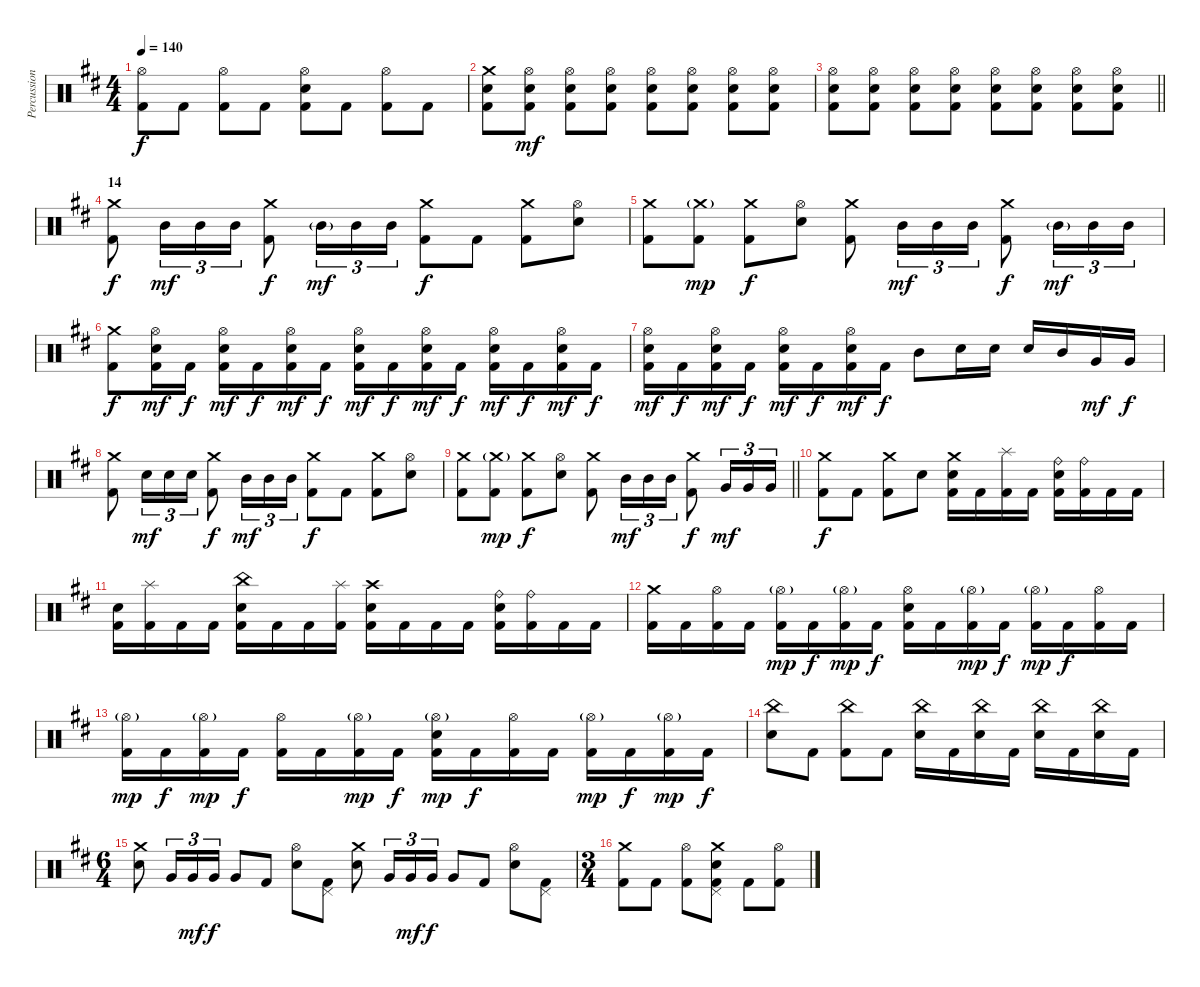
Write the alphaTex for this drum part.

\track ("Percussion" "Percussion") {instrument percussion}
\staff {score}
\articulation defaults
\ts (4 4)
\tempo 140
\clef neutral
\ks bminor
("Hi-Hat (open)" "Kick (hit) 2").8{dy f} "Kick (hit) 2".8 ("Hi-Hat (open)" "Kick (hit) 2").8 "Kick (hit) 2".8 ("Hi-Hat (open)" "Snare (hit) 2" "Kick (hit) 2").8 "Kick (hit) 2".8 ("Hi-Hat (open)" "Kick (hit) 2").8 "Kick (hit) 2".8 |
("Crash medium (hit)" "Snare (hit) 2" "Kick (hit) 2").8 ("Hi-Hat (open)" "Snare (hit) 2" "Kick (hit) 2").8{dy mf} ("Hi-Hat (open)" "Snare (hit) 2" "Kick (hit) 2").8 ("Hi-Hat (open)" "Snare (hit) 2" "Kick (hit) 2").8 ("Hi-Hat (open)" "Snare (hit) 2" "Kick (hit) 2").8 ("Hi-Hat (open)" "Snare (hit) 2" "Kick (hit) 2").8 ("Hi-Hat (open)" "Snare (hit) 2" "Kick (hit) 2").8 ("Hi-Hat (open)" "Snare (hit) 2" "Kick (hit) 2").8 |
\barLineRight lightlight
("Hi-Hat (open)" "Snare (hit) 2" "Kick (hit) 2").8 ("Hi-Hat (open)" "Snare (hit) 2" "Kick (hit) 2").8 ("Hi-Hat (open)" "Snare (hit) 2" "Kick (hit) 2").8 ("Hi-Hat (open)" "Snare (hit) 2" "Kick (hit) 2").8 ("Hi-Hat (open)" "Snare (hit) 2" "Kick (hit) 2").8 ("Hi-Hat (open)" "Snare (hit) 2" "Kick (hit) 2").8 ("Hi-Hat (open)" "Snare (hit) 2" "Kick (hit) 2").8 ("Hi-Hat (open)" "Snare (hit) 2" "Kick (hit) 2").8 |
\section ("" "14")
("Crash medium (hit)" "Kick (hit) 2").8{dy f} "Mid Tom (hit)".16{tu (3 2) dy mf} "Mid Tom (hit)".16{tu (3 2)} "Mid Tom (hit)".16{tu (3 2)} ("Crash medium (hit)" "Kick (hit) 2").8{dy f} "Mid Tom (hit)"{g}.16{tu (3 2) dy mf} "Mid Tom (hit)".16{tu (3 2)} "Mid Tom (hit)".16{tu (3 2)} ("Crash medium (hit)" "Kick (hit) 2").8{dy f} "Kick (hit) 2".8 ("Crash medium (hit)" "Kick (hit) 2").8 ("Hi-Hat (open)" "Snare (hit) 2").8 |
("Crash medium (hit)" "Kick (hit) 2").8 ("Crash medium (hit)"{g} "Kick (hit) 2").8{dy mp} ("Crash medium (hit)" "Kick (hit) 2").8{dy f} ("Hi-Hat (open)" "Snare (hit) 2").8 ("Crash medium (hit)" "Kick (hit) 2").8 "Mid Tom (hit)".16{tu (3 2) dy mf} "Mid Tom (hit)".16{tu (3 2)} "Mid Tom (hit)".16{tu (3 2)} ("Crash medium (hit)" "Kick (hit) 2").8{dy f} "Mid Tom (hit)"{g}.16{tu (3 2) dy mf} "Mid Tom (hit)".16{tu (3 2)} "Mid Tom (hit)".16{tu (3 2)} |
("Crash medium (hit)" "Kick (hit) 2").8{dy f} ("Hi-Hat (open)" "Snare (hit) 2" "Kick (hit) 2").16{dy mf} "Kick (hit) 2".16{dy f} ("Hi-Hat (open)" "Snare (hit) 2" "Kick (hit) 2").16{dy mf} "Kick (hit) 2".16{dy f} ("Hi-Hat (open)" "Snare (hit) 2" "Kick (hit) 2").16{dy mf} "Kick (hit) 2".16{dy f} ("Hi-Hat (open)" "Snare (hit) 2" "Kick (hit) 2").16{dy mf} "Kick (hit) 2".16{dy f} ("Hi-Hat (open)" "Snare (hit) 2" "Kick (hit) 2").16{dy mf} "Kick (hit) 2".16{dy f} ("Hi-Hat (open)" "Snare (hit) 2" "Kick (hit) 2").16{dy mf} "Kick (hit) 2".16{dy f} ("Hi-Hat (open)" "Snare (hit) 2" "Kick (hit) 2").16{dy mf} "Kick (hit) 2".16{dy f} |
("Hi-Hat (open)" "Snare (hit) 2" "Kick (hit) 2").16{dy mf} "Kick (hit) 2".16{dy f} ("Hi-Hat (open)" "Snare (hit) 2" "Kick (hit) 2").16{dy mf} "Kick (hit) 2".16{dy f} ("Hi-Hat (open)" "Snare (hit) 2" "Kick (hit) 2").16{dy mf} "Kick (hit) 2".16{dy f} ("Hi-Hat (open)" "Snare (hit) 2" "Kick (hit) 2").16{dy mf} "Kick (hit) 2".16{dy f} "Mid Tom (hit)".8 "Snare (hit) 2".16 "Snare (hit) 2".16 "Snare (hit) 2".16 "Mid Tom (hit)".16 "Very Low Tom (hit)".16{dy mf} "Very Low Tom (hit)".16{dy f} |
("Crash medium (hit)" "Kick (hit) 2").8 "Snare (hit) 2".16{tu (3 2) dy mf} "Snare (hit) 2".16{tu (3 2)} "Snare (hit) 2".16{tu (3 2)} ("Crash medium (hit)" "Kick (hit) 2").8{dy f} "Mid Tom (hit)".16{tu (3 2) dy mf} "Mid Tom (hit)".16{tu (3 2)} "Mid Tom (hit)".16{tu (3 2)} ("Crash medium (hit)" "Kick (hit) 2").8{dy f} "Kick (hit) 2".8 ("Crash medium (hit)" "Kick (hit) 2").8 ("Hi-Hat (open)" "Snare (hit) 2").8 |
\barLineRight lightlight
("Crash medium (hit)" "Kick (hit) 2").8 ("Crash medium (hit)"{g} "Kick (hit) 2").8{dy mp} ("Crash medium (hit)" "Kick (hit) 2").8{dy f} ("Hi-Hat (open)" "Snare (hit) 2").8 ("Crash medium (hit)" "Kick (hit) 2").8 "Mid Tom (hit)".16{tu (3 2) dy mf} "Mid Tom (hit)".16{tu (3 2)} "Mid Tom (hit)".16{tu (3 2)} ("Crash medium (hit)" "Kick (hit) 2").8{dy f} "Very Low Tom (hit)".16{tu (3 2) dy mf} "Very Low Tom (hit)".16{tu (3 2)} "Very Low Tom (hit)".16{tu (3 2)} |
\section ("" "")
("Crash medium (hit)" "Kick (hit) 2").8{dy f} "Kick (hit) 2".8 ("Crash medium (hit)" "Kick (hit) 2").8 "Snare (hit) 2".8 ("Crash medium (hit)" "Snare (hit) 2" "Kick (hit) 2").16 "Kick (hit) 2".16 ("Splash (hit)" "Kick (hit) 2").16 "Kick (hit) 2".16 ("Ride (bell)" "Snare (hit) 2" "Kick (hit) 2").16 ("Ride (bell)" "Kick (hit) 2").16 "Kick (hit) 2".16 "Kick (hit) 2".16 |
("Snare (hit) 2" "Kick (hit) 2").16 ("Splash (hit)" "Kick (hit) 2").16 "Kick (hit) 2".16 "Kick (hit) 2".16 ("China (hit)" "Snare (hit) 2" "Kick (hit) 2").16 "Kick (hit) 2".16 "Kick (hit) 2".16 ("Splash (hit)" "Kick (hit) 2").16 ("Crash high (hit)" "Snare (hit) 2" "Kick (hit) 2").16 "Kick (hit) 2".16 "Kick (hit) 2".16 "Kick (hit) 2".16 ("Ride (bell)" "Snare (hit) 2" "Kick (hit) 2").16 ("Ride (bell)" "Kick (hit) 2").16 "Kick (hit) 2".16 "Kick (hit) 2".16 |
("Crash medium (hit)" "Kick (hit) 2").16 "Kick (hit) 2".16 ("Hi-Hat (open)" "Kick (hit) 2").16 "Kick (hit) 2".16 ("Hi-Hat (open)"{g} "Kick (hit) 2").16{dy mp} "Kick (hit) 2".16{dy f} ("Hi-Hat (open)"{g} "Kick (hit) 2").16{dy mp} "Kick (hit) 2".16{dy f} ("Hi-Hat (open)" "Snare (hit) 2" "Kick (hit) 2").16 "Kick (hit) 2".16 ("Hi-Hat (open)"{g} "Kick (hit) 2").16{dy mp} "Kick (hit) 2".16{dy f} ("Hi-Hat (open)"{g} "Kick (hit) 2").16{dy mp} "Kick (hit) 2".16{dy f} ("Hi-Hat (open)" "Kick (hit) 2").16 "Kick (hit) 2".16 |
("Hi-Hat (open)"{g} "Kick (hit) 2").16{dy mp} "Kick (hit) 2".16{dy f} ("Hi-Hat (open)"{g} "Kick (hit) 2").16{dy mp} "Kick (hit) 2".16{dy f} ("Hi-Hat (open)" "Kick (hit) 2").16 "Kick (hit) 2".16 ("Hi-Hat (open)"{g} "Kick (hit) 2").16{dy mp} "Kick (hit) 2".16{dy f} ("Hi-Hat (open)"{g} "Snare (hit) 2" "Kick (hit) 2").16{dy mp} "Kick (hit) 2".16{dy f} ("Hi-Hat (open)" "Kick (hit) 2").16 "Kick (hit) 2".16 ("Hi-Hat (open)"{g} "Kick (hit) 2").16{dy mp} "Kick (hit) 2".16{dy f} ("Hi-Hat (open)"{g} "Kick (hit) 2").16{dy mp} "Kick (hit) 2".16{dy f} |
("China (hit)" "Snare (hit) 2").8 "Kick (hit) 2".8 ("China (hit)" "Kick (hit) 2").8 "Kick (hit) 2".8 ("China (hit)" "Snare (hit) 2").16 "Kick (hit) 2".16 ("China (hit)" "Snare (hit) 2").16 "Kick (hit) 2".16 ("China (hit)" "Snare (hit) 2").16 "Kick (hit) 2".16 ("China (hit)" "Snare (hit) 2").16 "Kick (hit) 2".16 |
\ts (6 4)
("Crash medium (hit)" "Snare (hit) 2").8 "Very Low Tom (hit)".16{tu (3 2)} "Very Low Tom (hit)".16{tu (3 2) dy mf} "Very Low Tom (hit)".16{tu (3 2) dy f} "Very Low Tom (hit)".8 "Kick (hit) 2".8 ("Hi-Hat (open)" "Snare (hit) 2").8 ("Pedal Hi-Hat (hit)" "Kick (hit) 2").8 ("Crash medium (hit)" "Snare (hit) 2").8 "Very Low Tom (hit)".16{tu (3 2)} "Very Low Tom (hit)".16{tu (3 2) dy mf} "Very Low Tom (hit)".16{tu (3 2) dy f} "Very Low Tom (hit)".8 "Kick (hit) 2".8 ("Hi-Hat (open)" "Snare (hit) 2").8 ("Pedal Hi-Hat (hit)" "Kick (hit) 2").8 |
\ts (3 4)
("Crash medium (hit)" "Kick (hit) 2").8 "Kick (hit) 2".8 ("Hi-Hat (open)" "Kick (hit) 2").8 ("Crash medium (hit)" "Pedal Hi-Hat (hit)" "Snare (hit) 2" "Kick (hit) 2").8 "Kick (hit) 2".8 ("Hi-Hat (open)" "Kick (hit) 2").8
